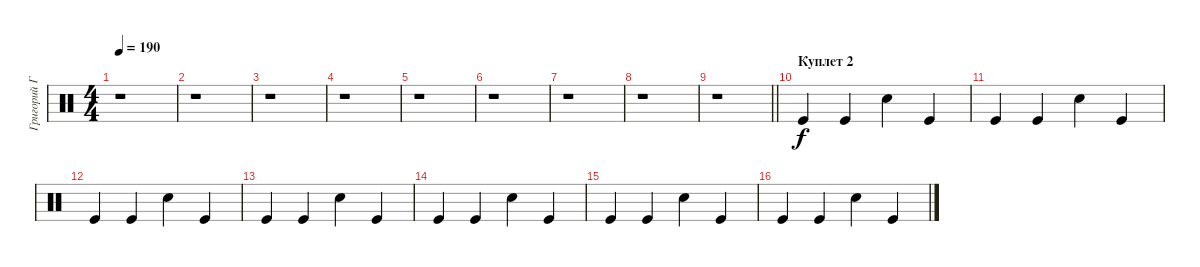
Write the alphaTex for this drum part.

\track ("Григорий Габерман" "Григорий Г") {instrument percussion}
\staff {score}
\articulation defaults
\ts (4 4)
\tempo 190
\clef neutral
\ks c
r.1{dy f} |
r.1 |
r.1 |
r.1 |
r.1 |
r.1 |
r.1 |
r.1 |
\barLineRight lightlight
r.1 |
\section ("" "Куплет 2")
"Kick (hit)".4 "Kick (hit)".4 "Snare (hit) 2".4 "Kick (hit)".4 |
"Kick (hit)".4 "Kick (hit)".4 "Snare (hit) 2".4 "Kick (hit)".4 |
"Kick (hit)".4 "Kick (hit)".4 "Snare (hit) 2".4 "Kick (hit)".4 |
"Kick (hit)".4 "Kick (hit)".4 "Snare (hit) 2".4 "Kick (hit)".4 |
"Kick (hit)".4 "Kick (hit)".4 "Snare (hit) 2".4 "Kick (hit)".4 |
"Kick (hit)".4 "Kick (hit)".4 "Snare (hit) 2".4 "Kick (hit)".4 |
"Kick (hit)".4 "Kick (hit)".4 "Snare (hit) 2".4 "Kick (hit)".4
